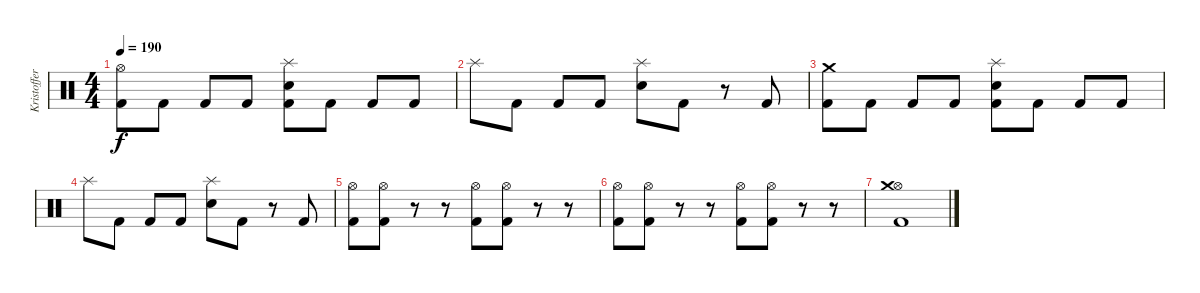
\track ("Kristoffer (Drums)" "Kristoffer") {instrument percussion}
\staff {score}
\articulation defaults
\ts (4 4)
\tempo 190
\clef neutral
\ks c
("Kick (hit) 2" "Hi-Hat (open)").8{dy f} "Kick (hit) 2".8 "Kick (hit) 2".8 "Kick (hit) 2".8 ("Kick (hit) 2" "Electric Snare (hit)" "Splash (hit)").8 "Kick (hit) 2".8 "Kick (hit) 2".8 "Kick (hit) 2".8 |
"Splash (hit)".8 "Kick (hit) 2".8 "Kick (hit) 2".8 "Kick (hit) 2".8 ("Electric Snare (hit)" "Splash (hit)").8 "Kick (hit) 2".8 r.8 "Kick (hit) 2".8 |
("Kick (hit) 2" "Crash medium (hit)").8 "Kick (hit) 2".8 "Kick (hit) 2".8 "Kick (hit) 2".8 ("Kick (hit) 2" "Electric Snare (hit)" "Splash (hit)").8 "Kick (hit) 2".8 "Kick (hit) 2".8 "Kick (hit) 2".8 |
"Splash (hit)".8 "Kick (hit) 2".8 "Kick (hit) 2".8 "Kick (hit) 2".8 ("Electric Snare (hit)" "Splash (hit)").8 "Kick (hit) 2".8 r.8 "Kick (hit) 2".8 |
("Kick (hit) 2" "Hi-Hat (open)").8 ("Kick (hit) 2" "Hi-Hat (open)").8 r.8 r.8 ("Kick (hit) 2" "Hi-Hat (open)").8 ("Kick (hit) 2" "Hi-Hat (open)").8 r.8 r.8 |
("Kick (hit) 2" "Hi-Hat (open)").8 ("Kick (hit) 2" "Hi-Hat (open)").8 r.8 r.8 ("Kick (hit) 2" "Hi-Hat (open)").8 ("Kick (hit) 2" "Hi-Hat (open)").8 r.8 r.8 |
("Kick (hit) 2" "Hi-Hat (open)" "Crash medium (hit)").1
